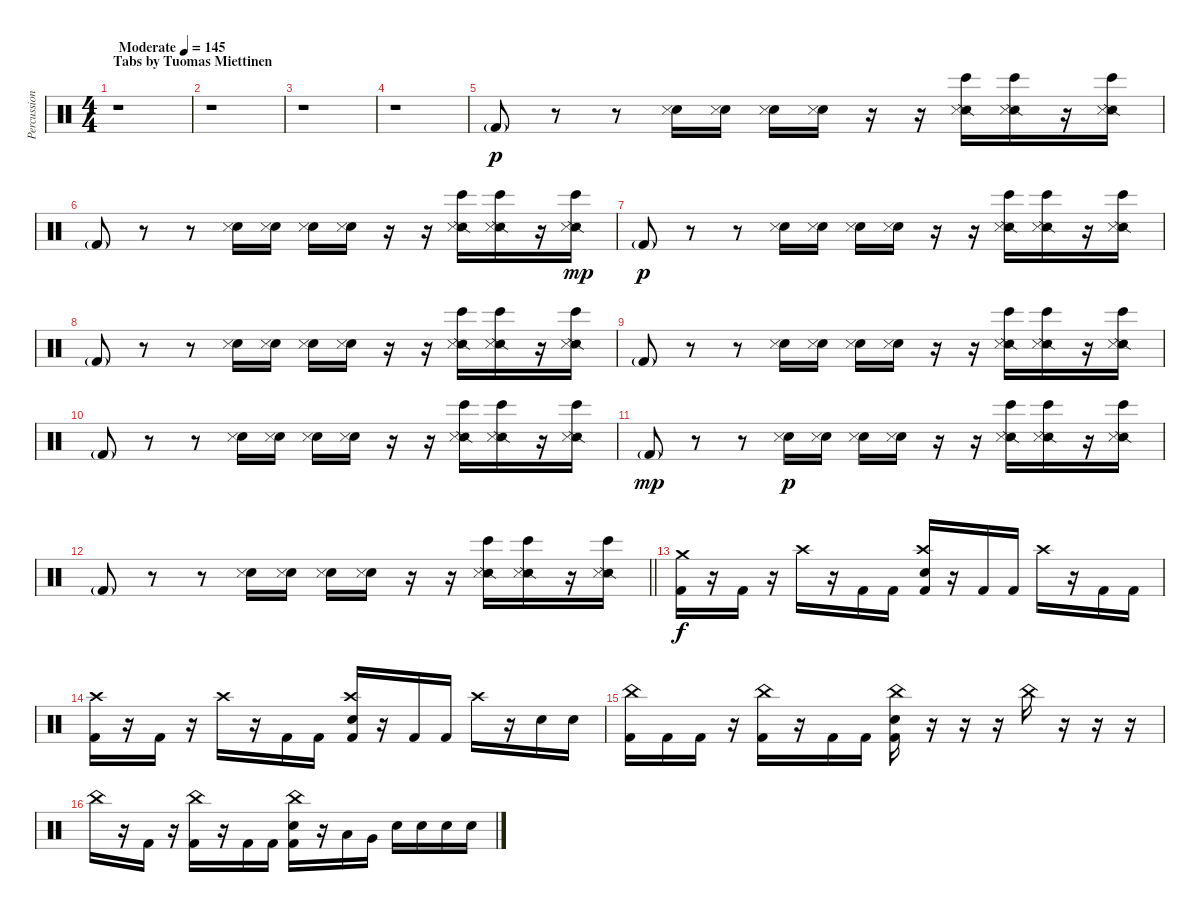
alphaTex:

\track ("Percussions" "Percussion") {instrument percussion}
\staff {score}
\articulation defaults
\ts (4 4)
\section ("" "Tabs by Tuomas Miettinen")
\tempo (145 "Moderate")
\clef neutral
\ks c
r.1{dy p} |
r.1 |
r.1 |
r.1 |
"Kick (hit) 2"{g}.8 r.8 r.8 ("Snare (hit) 2" "Snare (side stick) 3").16 ("Snare (hit) 2" "Snare (side stick) 3").16 ("Snare (hit) 2" "Snare (side stick) 3").16 ("Snare (hit) 2" "Snare (side stick) 3").16 r.16 r.16 ("Snare (side stick) 2" "Bongo High (hit)" "Metronome (hit)").16 ("Snare (side stick) 2" "Bongo High (hit)" "Metronome (hit)").16 r.16 ("Snare (side stick) 2" "Bongo High (hit)" "Metronome (hit)").16 |
"Kick (hit) 2"{g}.8 r.8 r.8 ("Snare (hit) 2" "Snare (side stick) 3").16 ("Snare (hit) 2" "Snare (side stick) 3").16 ("Snare (hit) 2" "Snare (side stick) 3").16 ("Snare (hit) 2" "Snare (side stick) 3").16 r.16 r.16 ("Snare (side stick) 2" "Bongo High (hit)" "Metronome (hit)").16 ("Snare (side stick) 2" "Bongo High (hit)" "Metronome (hit)").16 r.16 ("Snare (side stick) 2" "Bongo High (hit)" "Metronome (hit)").16{dy mp} |
"Kick (hit) 2"{g}.8{dy p} r.8 r.8 ("Snare (hit) 2" "Snare (side stick) 3").16 ("Snare (hit) 2" "Snare (side stick) 3").16 ("Snare (hit) 2" "Snare (side stick) 3").16 ("Snare (hit) 2" "Snare (side stick) 3").16 r.16 r.16 ("Snare (side stick) 2" "Bongo High (hit)" "Metronome (hit)").16 ("Snare (side stick) 2" "Bongo High (hit)" "Metronome (hit)").16 r.16 ("Snare (side stick) 2" "Bongo High (hit)" "Metronome (hit)").16 |
"Kick (hit) 2"{g}.8 r.8 r.8 ("Snare (hit) 2" "Snare (side stick) 3").16 ("Snare (hit) 2" "Snare (side stick) 3").16 ("Snare (hit) 2" "Snare (side stick) 3").16 ("Snare (hit) 2" "Snare (side stick) 3").16 r.16 r.16 ("Snare (side stick) 2" "Bongo High (hit)" "Metronome (hit)").16 ("Snare (side stick) 2" "Bongo High (hit)" "Metronome (hit)").16 r.16 ("Snare (side stick) 2" "Bongo High (hit)" "Metronome (hit)").16 |
"Kick (hit) 2"{g}.8 r.8 r.8 ("Snare (hit) 2" "Snare (side stick) 3").16 ("Snare (hit) 2" "Snare (side stick) 3").16 ("Snare (hit) 2" "Snare (side stick) 3").16 ("Snare (hit) 2" "Snare (side stick) 3").16 r.16 r.16 ("Snare (side stick) 2" "Bongo High (hit)" "Metronome (hit)").16 ("Snare (side stick) 2" "Bongo High (hit)" "Metronome (hit)").16 r.16 ("Snare (side stick) 2" "Bongo High (hit)" "Metronome (hit)").16 |
"Kick (hit) 2"{g}.8 r.8 r.8 ("Snare (hit) 2" "Snare (side stick) 3").16 ("Snare (hit) 2" "Snare (side stick) 3").16 ("Snare (hit) 2" "Snare (side stick) 3").16 ("Snare (hit) 2" "Snare (side stick) 3").16 r.16 r.16 ("Snare (side stick) 2" "Bongo High (hit)" "Metronome (hit)").16 ("Snare (side stick) 2" "Bongo High (hit)" "Metronome (hit)").16 r.16 ("Snare (side stick) 2" "Bongo High (hit)" "Metronome (hit)").16 |
"Kick (hit) 2"{g}.8{dy mp} r.8 r.8 ("Snare (hit) 2" "Snare (side stick) 3").16{dy p} ("Snare (hit) 2" "Snare (side stick) 3").16 ("Snare (hit) 2" "Snare (side stick) 3").16 ("Snare (hit) 2" "Snare (side stick) 3").16 r.16 r.16 ("Snare (side stick) 2" "Bongo High (hit)" "Metronome (hit)").16 ("Snare (side stick) 2" "Bongo High (hit)" "Metronome (hit)").16 r.16 ("Snare (side stick) 2" "Bongo High (hit)" "Metronome (hit)").16 |
\barLineRight lightlight "Kick (hit) 2"{g}.8
r.8 r.8 ("Snare (hit) 2" "Snare (side stick) 3").16 ("Snare (hit) 2" "Snare (side stick) 3").16 ("Snare (hit) 2" "Snare (side stick) 3").16 ("Snare (hit) 2" "Snare (side stick) 3").16 r.16 r.16 ("Snare (side stick) 2" "Bongo High (hit)" "Metronome (hit)").16 ("Snare (side stick) 2" "Bongo High (hit)" "Metronome (hit)").16 r.16 ("Snare (side stick) 2" "Bongo High (hit)" "Metronome (hit)").16 |
\section ("" "")
("Crash medium (hit)" "Kick (hit) 2").16{dy f} r.16 "Kick (hit) 2".16 r.16 "Crash high (hit)".16 r.16 "Kick (hit) 2".16 "Kick (hit) 2".16 ("Crash high (hit)" "Electric Snare (hit)" "Kick (hit) 2").16 r.16 "Kick (hit) 2".16 "Kick (hit) 2".16 "Crash high (hit)".16 r.16 "Kick (hit) 2".16 "Kick (hit) 2".16 |
("Crash high (hit)" "Kick (hit) 2").16 r.16 "Kick (hit) 2".16 r.16 "Crash high (hit)".16 r.16 "Kick (hit) 2".16 "Kick (hit) 2".16 ("Crash high (hit)" "Electric Snare (hit)" "Kick (hit) 2").16 r.16 "Kick (hit) 2".16 "Kick (hit) 2".16 "Crash high (hit)".16 r.16 "Electric Snare (hit)".16 "Electric Snare (hit)".16 |
("China (hit)" "Kick (hit) 2").16 "Kick (hit) 2".16 "Kick (hit) 2".16 r.16 ("China (hit)" "Kick (hit) 2").16 r.16 "Kick (hit) 2".16 "Kick (hit) 2".16 ("China (hit)" "Electric Snare (hit)" "Kick (hit) 2").16 r.16 r.16 r.16 "China (hit)".16 r.16 r.16 r.16 |
"China (hit)".16 r.16 "Kick (hit) 2".16 r.16 ("China (hit)" "Kick (hit) 2").16 r.16 "Kick (hit) 2".16 "Kick (hit) 2".16 ("China (hit)" "Electric Snare (hit)" "Kick (hit) 2").16 r.16 "Low Tom (hit)".16 "Very Low Tom (hit)".16 "Electric Snare (hit)".16 "Electric Snare (hit)".16 "Electric Snare (hit)".16 "Electric Snare (hit)".16
